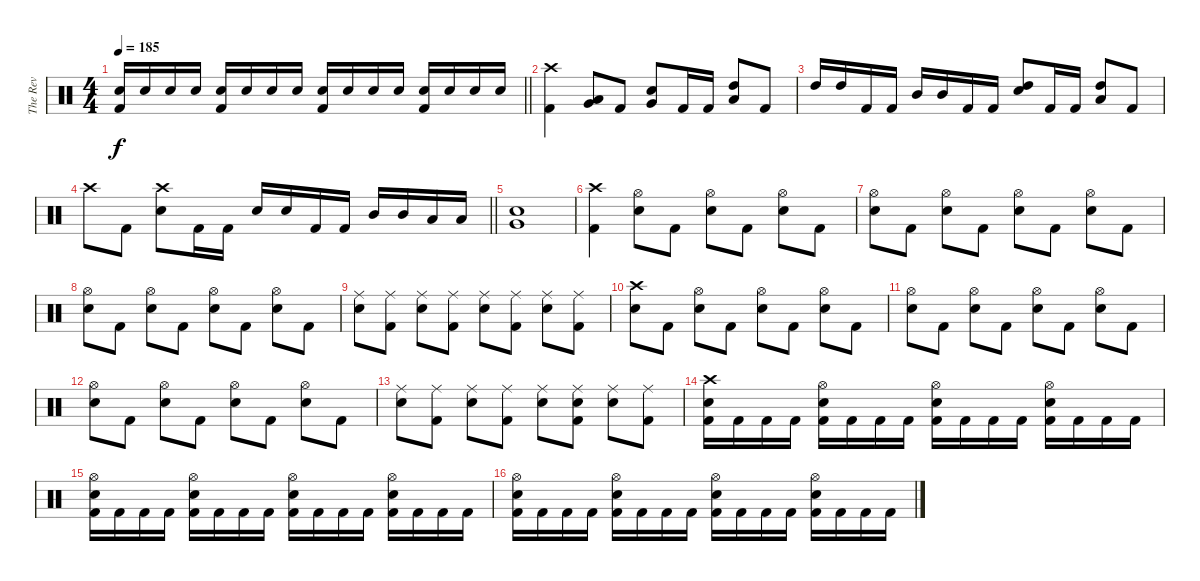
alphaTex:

\track ("The Rev" "The Rev") {instrument percussion}
\staff {score}
\articulation defaults
\ts (4 4)
\tempo 185
\clef neutral
\barLineRight lightlight
\ks c
("Electric Snare (hit)" "Kick (hit) 2").16{dy f} "Electric Snare (hit)".16 "Electric Snare (hit)".16 "Electric Snare (hit)".16 ("Electric Snare (hit)" "Kick (hit) 2").16 "Electric Snare (hit)".16 "Electric Snare (hit)".16 "Electric Snare (hit)".16 ("Electric Snare (hit)" "Kick (hit) 2").16 "Electric Snare (hit)".16 "Electric Snare (hit)".16 "Electric Snare (hit)".16 ("Electric Snare (hit)" "Kick (hit) 2").16 "Electric Snare (hit)".16 "Electric Snare (hit)".16 "Electric Snare (hit)".16 |
("Crash high (hit)" "Kick (hit) 2").4 ("Low Tom (hit)" "Very Low Tom (hit)").8 "Kick (hit) 2".8 ("Very Low Tom (hit)" "Electric Snare (hit)").8 "Kick (hit) 2".16 "Kick (hit) 2".16 ("High Tom (hit)" "Low Tom (hit)").8 "Kick (hit) 2".8 |
"High Tom (hit)".16 "High Tom (hit)".16 "Kick (hit) 2".16 "Kick (hit) 2".16 "Mid Tom (hit)".16 "Mid Tom (hit)".16 "Kick (hit) 2".16 "Kick (hit) 2".16 ("High Tom (hit)" "Electric Snare (hit)").8 "Kick (hit) 2".16 "Kick (hit) 2".16 ("High Tom (hit)" "Low Tom (hit)").8 "Kick (hit) 2".8 |
\barLineRight lightlight "Crash high (hit)".8 "Kick (hit) 2".8
("Crash high (hit)" "Electric Snare (hit)").8 "Kick (hit) 2".16 "Kick (hit) 2".16 "Electric Snare (hit)".16 "Electric Snare (hit)".16 "Kick (hit) 2".16 "Kick (hit) 2".16 "Mid Tom (hit)".16 "Mid Tom (hit)".16 "Low Tom (hit)".16 "Low Tom (hit)".16 |
("Very Low Tom (hit)" "Electric Snare (hit)").1 |
("Crash high (hit)" "Kick (hit) 2").4 ("Hi-Hat (open)" "Electric Snare (hit)").8 "Kick (hit) 2".8 ("Hi-Hat (open)" "Electric Snare (hit)").8 "Kick (hit) 2".8 ("Hi-Hat (open)" "Electric Snare (hit)").8 "Kick (hit) 2".8 |
("Hi-Hat (open)" "Electric Snare (hit)").8 "Kick (hit) 2".8 ("Hi-Hat (open)" "Electric Snare (hit)").8 "Kick (hit) 2".8 ("Hi-Hat (open)" "Electric Snare (hit)").8 "Kick (hit) 2".8 ("Hi-Hat (open)" "Electric Snare (hit)").8 "Kick (hit) 2".8 |
("Hi-Hat (open)" "Electric Snare (hit)").8 "Kick (hit) 2".8 ("Hi-Hat (open)" "Electric Snare (hit)").8 "Kick (hit) 2".8 ("Hi-Hat (open)" "Electric Snare (hit)").8 "Kick (hit) 2".8 ("Hi-Hat (open)" "Electric Snare (hit)").8 "Kick (hit) 2".8 |
("Ride (middle)" "Electric Snare (hit)").8 ("Ride (middle)" "Kick (hit) 2").8 ("Ride (middle)" "Electric Snare (hit)").8 ("Ride (middle)" "Kick (hit) 2").8 ("Ride (middle)" "Electric Snare (hit)").8 ("Ride (middle)" "Kick (hit) 2").8 ("Ride (middle)" "Electric Snare (hit)").8 ("Ride (middle)" "Kick (hit) 2").8 |
("Crash high (hit)" "Electric Snare (hit)").8 "Kick (hit) 2".8 ("Hi-Hat (open)" "Electric Snare (hit)").8 "Kick (hit) 2".8 ("Hi-Hat (open)" "Electric Snare (hit)").8 "Kick (hit) 2".8 ("Hi-Hat (open)" "Electric Snare (hit)").8 "Kick (hit) 2".8 |
("Hi-Hat (open)" "Electric Snare (hit)").8 "Kick (hit) 2".8 ("Hi-Hat (open)" "Electric Snare (hit)").8 "Kick (hit) 2".8 ("Hi-Hat (open)" "Electric Snare (hit)").8 "Kick (hit) 2".8 ("Hi-Hat (open)" "Electric Snare (hit)").8 "Kick (hit) 2".8 |
("Hi-Hat (open)" "Electric Snare (hit)").8 "Kick (hit) 2".8 ("Hi-Hat (open)" "Electric Snare (hit)").8 "Kick (hit) 2".8 ("Hi-Hat (open)" "Electric Snare (hit)").8 "Kick (hit) 2".8 ("Hi-Hat (open)" "Electric Snare (hit)").8 "Kick (hit) 2".8 |
("Ride (middle)" "Electric Snare (hit)").8 ("Ride (middle)" "Kick (hit) 2").8 ("Ride (middle)" "Electric Snare (hit)").8 ("Ride (middle)" "Kick (hit) 2").8 ("Ride (middle)" "Electric Snare (hit)").8 ("Ride (middle)" "Electric Snare (hit)" "Kick (hit) 2").8 ("Ride (middle)" "Electric Snare (hit)").8 ("Ride (middle)" "Kick (hit) 2").8 |
("Crash high (hit)" "Electric Snare (hit)" "Kick (hit) 2").16 "Kick (hit) 2".16 "Kick (hit) 2".16 "Kick (hit) 2".16 ("Hi-Hat (open)" "Electric Snare (hit)" "Kick (hit) 2").16 "Kick (hit) 2".16 "Kick (hit) 2".16 "Kick (hit) 2".16 ("Hi-Hat (open)" "Electric Snare (hit)" "Kick (hit) 2").16 "Kick (hit) 2".16 "Kick (hit) 2".16 "Kick (hit) 2".16 ("Hi-Hat (open)" "Electric Snare (hit)" "Kick (hit) 2").16 "Kick (hit) 2".16 "Kick (hit) 2".16 "Kick (hit) 2".16 |
("Hi-Hat (open)" "Electric Snare (hit)" "Kick (hit) 2").16 "Kick (hit) 2".16 "Kick (hit) 2".16 "Kick (hit) 2".16 ("Hi-Hat (open)" "Electric Snare (hit)" "Kick (hit) 2").16 "Kick (hit) 2".16 "Kick (hit) 2".16 "Kick (hit) 2".16 ("Hi-Hat (open)" "Electric Snare (hit)" "Kick (hit) 2").16 "Kick (hit) 2".16 "Kick (hit) 2".16 "Kick (hit) 2".16 ("Hi-Hat (open)" "Electric Snare (hit)" "Kick (hit) 2").16 "Kick (hit) 2".16 "Kick (hit) 2".16 "Kick (hit) 2".16 |
("Hi-Hat (open)" "Electric Snare (hit)" "Kick (hit) 2").16 "Kick (hit) 2".16 "Kick (hit) 2".16 "Kick (hit) 2".16 ("Hi-Hat (open)" "Electric Snare (hit)" "Kick (hit) 2").16 "Kick (hit) 2".16 "Kick (hit) 2".16 "Kick (hit) 2".16 ("Hi-Hat (open)" "Electric Snare (hit)" "Kick (hit) 2").16 "Kick (hit) 2".16 "Kick (hit) 2".16 "Kick (hit) 2".16 ("Hi-Hat (open)" "Electric Snare (hit)" "Kick (hit) 2").16 "Kick (hit) 2".16 "Kick (hit) 2".16 "Kick (hit) 2".16
